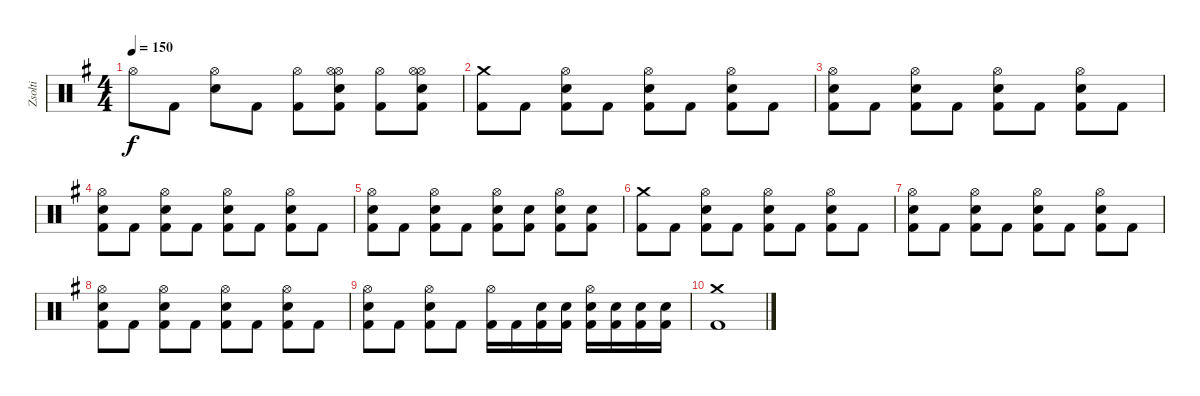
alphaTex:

\track ("Zsolti" "Zsolti") {instrument percussion}
\staff {score}
\articulation defaults
\ts (4 4)
\tempo 150
\clef neutral
\ks eminor "Hi-Hat (open)".8{dy f} "Kick (hit) 2".8
("Hi-Hat (open)" "Snare (hit) 2").8 "Kick (hit) 2".8 ("Hi-Hat (open)" "Kick (hit) 2").8 ("Hi-Hat (open)" "Hi-Hat (open)" "Snare (hit) 2" "Kick (hit) 2").8 ("Hi-Hat (open)" "Kick (hit) 2").8 ("Hi-Hat (open)" "Hi-Hat (open)" "Snare (hit) 2" "Kick (hit) 2").8 |
("Crash medium (hit)" "Kick (hit) 2").8 "Kick (hit) 2".8 ("Hi-Hat (open)" "Snare (hit) 2" "Kick (hit) 2").8 "Kick (hit) 2".8 ("Hi-Hat (open)" "Snare (hit) 2" "Kick (hit) 2").8 "Kick (hit) 2".8 ("Hi-Hat (open)" "Snare (hit) 2" "Kick (hit) 2").8 "Kick (hit) 2".8 |
("Hi-Hat (open)" "Snare (hit) 2" "Kick (hit) 2").8 "Kick (hit) 2".8 ("Hi-Hat (open)" "Snare (hit) 2" "Kick (hit) 2").8 "Kick (hit) 2".8 ("Hi-Hat (open)" "Snare (hit) 2" "Kick (hit) 2").8 "Kick (hit) 2".8 ("Hi-Hat (open)" "Snare (hit) 2" "Kick (hit) 2").8 "Kick (hit) 2".8 |
("Hi-Hat (open)" "Snare (hit) 2" "Kick (hit) 2").8 "Kick (hit) 2".8 ("Hi-Hat (open)" "Snare (hit) 2" "Kick (hit) 2").8 "Kick (hit) 2".8 ("Hi-Hat (open)" "Snare (hit) 2" "Kick (hit) 2").8 "Kick (hit) 2".8 ("Hi-Hat (open)" "Snare (hit) 2" "Kick (hit) 2").8 "Kick (hit) 2".8 |
("Hi-Hat (open)" "Snare (hit) 2" "Kick (hit) 2").8 "Kick (hit) 2".8 ("Hi-Hat (open)" "Snare (hit) 2" "Kick (hit) 2").8 "Kick (hit) 2".8 ("Hi-Hat (open)" "Snare (hit) 2" "Kick (hit) 2").8 ("Snare (hit) 2" "Kick (hit) 2").8 ("Hi-Hat (open)" "Snare (hit) 2" "Kick (hit) 2").8 ("Snare (hit) 2" "Kick (hit) 2").8 |
("Crash medium (hit)" "Kick (hit) 2").8 "Kick (hit) 2".8 ("Hi-Hat (open)" "Snare (hit) 2" "Kick (hit) 2").8 "Kick (hit) 2".8 ("Hi-Hat (open)" "Snare (hit) 2" "Kick (hit) 2").8 "Kick (hit) 2".8 ("Hi-Hat (open)" "Snare (hit) 2" "Kick (hit) 2").8 "Kick (hit) 2".8 |
("Hi-Hat (open)" "Snare (hit) 2" "Kick (hit) 2").8 "Kick (hit) 2".8 ("Hi-Hat (open)" "Snare (hit) 2" "Kick (hit) 2").8 "Kick (hit) 2".8 ("Hi-Hat (open)" "Snare (hit) 2" "Kick (hit) 2").8 "Kick (hit) 2".8 ("Hi-Hat (open)" "Snare (hit) 2" "Kick (hit) 2").8 "Kick (hit) 2".8 |
("Hi-Hat (open)" "Snare (hit) 2" "Kick (hit) 2").8 "Kick (hit) 2".8 ("Hi-Hat (open)" "Snare (hit) 2" "Kick (hit) 2").8 "Kick (hit) 2".8 ("Hi-Hat (open)" "Snare (hit) 2" "Kick (hit) 2").8 "Kick (hit) 2".8 ("Hi-Hat (open)" "Snare (hit) 2" "Kick (hit) 2").8 "Kick (hit) 2".8 |
("Hi-Hat (open)" "Snare (hit) 2" "Kick (hit) 2").8 "Kick (hit) 2".8 ("Hi-Hat (open)" "Snare (hit) 2" "Kick (hit) 2").8 "Kick (hit) 2".8 ("Hi-Hat (open)" "Kick (hit) 2").16 "Kick (hit) 2".16 ("Snare (hit) 2" "Kick (hit) 2").16 ("Snare (hit) 2" "Kick (hit) 2").16 ("Hi-Hat (open)" "Snare (hit) 2" "Kick (hit) 2").16 ("Snare (hit) 2" "Kick (hit) 2").16 ("Snare (hit) 2" "Kick (hit) 2").16 ("Snare (hit) 2" "Kick (hit) 2").16 |
("Crash medium (hit)" "Kick (hit) 2").1
